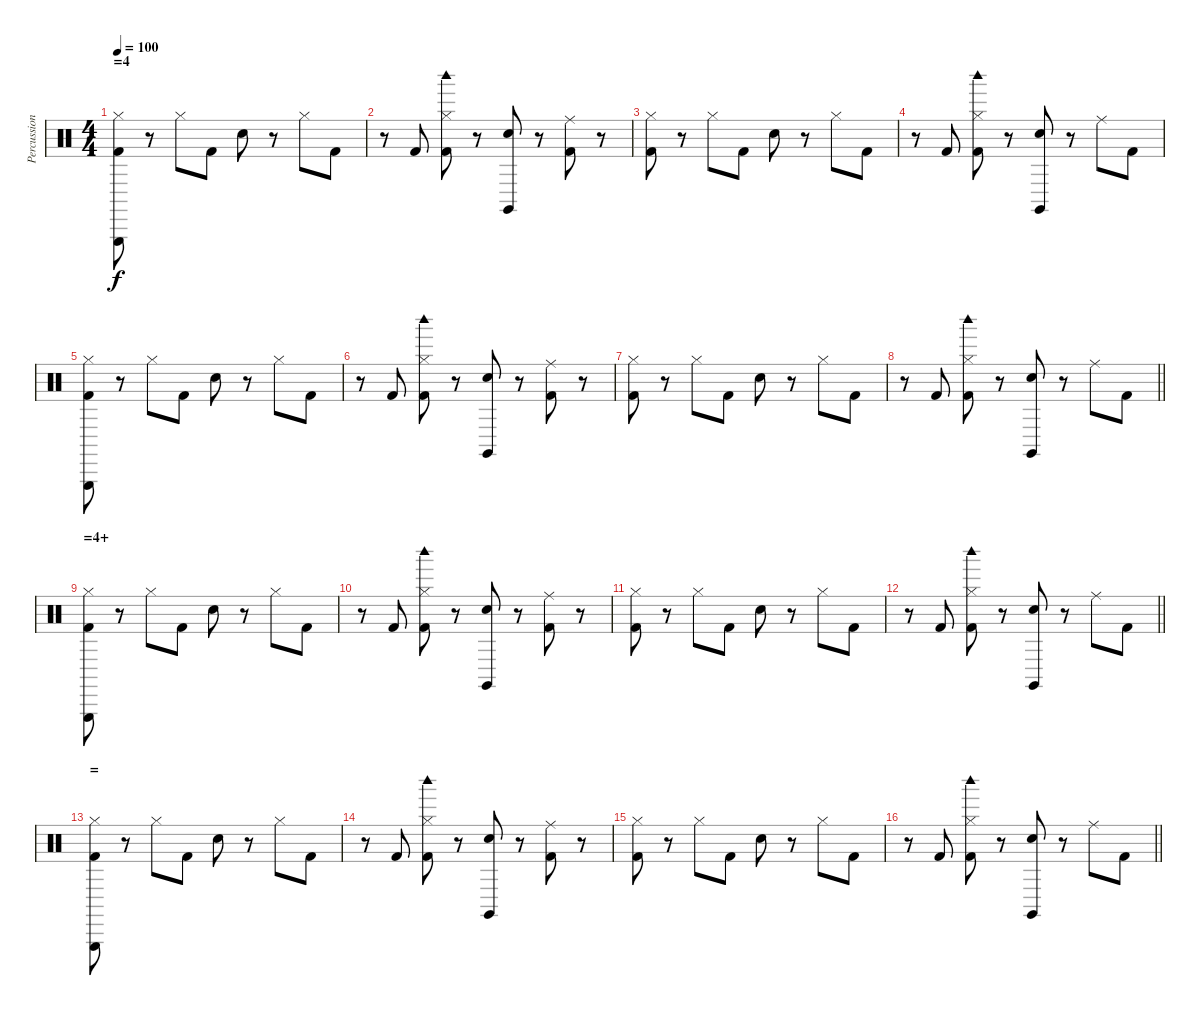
\track ("Percussion" "Percussion") {instrument percussion}
\staff {score}
\articulation defaults
\ts (4 4)
\section ("" "=4")
\tempo 100
\clef neutral
\ks c
("Kick (hit) 2" "Triangle (hit)" "Hi-Hat (closed)").8{dy f} r.8 "Hi-Hat (closed)".8 "Kick (hit) 2".8 "Electric Snare (hit)".8 r.8 "Hi-Hat (closed)".8 "Kick (hit) 2".8 |
r.8 "Kick (hit) 2".8 ("Kick (hit) 2" "Woodblock high (hit)" "Hi-Hat (closed)").8 r.8 ("Electric Snare (hit)" "Claves (hit)").8 r.8 ("Kick (hit) 2" "Ride (middle)").8 r.8 |
("Kick (hit) 2" "Hi-Hat (closed)").8 r.8 "Hi-Hat (closed)".8 "Kick (hit) 2".8 "Electric Snare (hit)".8 r.8 "Hi-Hat (closed)".8 "Kick (hit) 2".8 |
r.8 "Kick (hit) 2".8 ("Kick (hit) 2" "Woodblock high (hit)" "Hi-Hat (closed)").8 r.8 ("Electric Snare (hit)" "Claves (hit)").8 r.8 "Ride (middle)".8 "Kick (hit) 2".8 |
("Kick (hit) 2" "Triangle (hit)" "Hi-Hat (closed)").8 r.8 "Hi-Hat (closed)".8 "Kick (hit) 2".8 "Electric Snare (hit)".8 r.8 "Hi-Hat (closed)".8 "Kick (hit) 2".8 |
r.8 "Kick (hit) 2".8 ("Kick (hit) 2" "Woodblock high (hit)" "Hi-Hat (closed)").8 r.8 ("Electric Snare (hit)" "Claves (hit)").8 r.8 ("Kick (hit) 2" "Ride (middle)").8 r.8 |
("Kick (hit) 2" "Hi-Hat (closed)").8 r.8 "Hi-Hat (closed)".8 "Kick (hit) 2".8 "Electric Snare (hit)".8 r.8 "Hi-Hat (closed)".8 "Kick (hit) 2".8 |
\barLineRight lightlight
r.8 "Kick (hit) 2".8 ("Kick (hit) 2" "Woodblock high (hit)" "Hi-Hat (closed)").8 r.8 ("Electric Snare (hit)" "Claves (hit)").8 r.8 "Ride (middle)".8 "Kick (hit) 2".8 |
\section ("" "=4+")
("Kick (hit) 2" "Triangle (hit)" "Hi-Hat (closed)").8 r.8 "Hi-Hat (closed)".8 "Kick (hit) 2".8 "Electric Snare (hit)".8 r.8 "Hi-Hat (closed)".8 "Kick (hit) 2".8 |
r.8 "Kick (hit) 2".8 ("Kick (hit) 2" "Woodblock high (hit)" "Hi-Hat (closed)").8 r.8 ("Electric Snare (hit)" "Claves (hit)").8 r.8 ("Kick (hit) 2" "Ride (middle)").8 r.8 |
("Kick (hit) 2" "Hi-Hat (closed)").8 r.8 "Hi-Hat (closed)".8 "Kick (hit) 2".8 "Electric Snare (hit)".8 r.8 "Hi-Hat (closed)".8 "Kick (hit) 2".8 |
\barLineRight lightlight
r.8 "Kick (hit) 2".8 ("Kick (hit) 2" "Woodblock high (hit)" "Hi-Hat (closed)").8 r.8 ("Electric Snare (hit)" "Claves (hit)").8 r.8 "Ride (middle)".8 "Kick (hit) 2".8 |
\section ("" "=")
("Kick (hit) 2" "Triangle (hit)" "Hi-Hat (closed)").8 r.8 "Hi-Hat (closed)".8 "Kick (hit) 2".8 "Electric Snare (hit)".8 r.8 "Hi-Hat (closed)".8 "Kick (hit) 2".8 |
r.8 "Kick (hit) 2".8 ("Kick (hit) 2" "Woodblock high (hit)" "Hi-Hat (closed)").8 r.8 ("Electric Snare (hit)" "Claves (hit)").8 r.8 ("Kick (hit) 2" "Ride (middle)").8 r.8 |
("Kick (hit) 2" "Hi-Hat (closed)").8 r.8 "Hi-Hat (closed)".8 "Kick (hit) 2".8 "Electric Snare (hit)".8 r.8 "Hi-Hat (closed)".8 "Kick (hit) 2".8 |
\barLineRight lightlight
r.8 "Kick (hit) 2".8 ("Kick (hit) 2" "Woodblock high (hit)" "Hi-Hat (closed)").8 r.8 ("Electric Snare (hit)" "Claves (hit)").8 r.8 "Ride (middle)".8 "Kick (hit) 2".8
